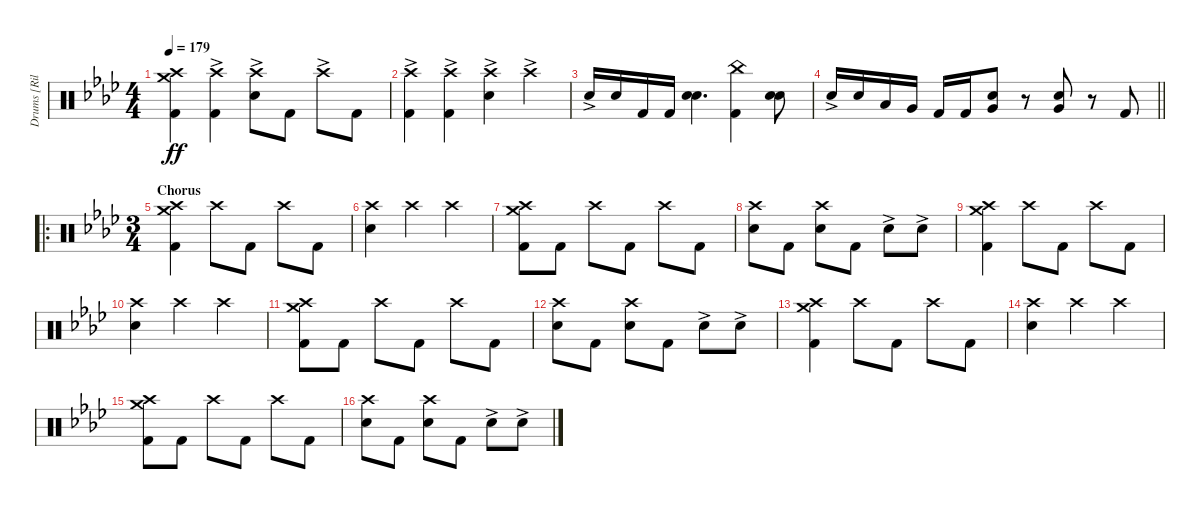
\track ("Drums [Riley]" "Drums [Ril") {instrument percussion}
\staff {score}
\articulation defaults
\ts (4 4)
\tempo 179
\clef neutral
\ks ab
("Crash medium (hit)" "Crash high (hit)" "Kick (hit) 2").4{dy ff} ("Crash high (hit)"{ac} "Kick (hit) 2").4 ("Crash high (hit)"{ac} "Electric Snare (hit)").8 "Kick (hit) 2".8 "Crash high (hit)"{ac}.8 "Kick (hit) 2".8 |
("Crash high (hit)"{ac} "Kick (hit) 2").4 ("Crash high (hit)"{ac} "Kick (hit) 2").4 ("Crash high (hit)"{ac} "Electric Snare (hit)").4 "Crash high (hit)"{ac}.4 |
"Electric Snare (hit)"{ac}.16 "Electric Snare (hit)".16 "Kick (hit) 2".16 "Kick (hit) 2".16 ("Electric Snare (hit)" "Electric Snare (hit)").4{d bu 60} ("China (hit)" "Kick (hit) 2").4 ("Electric Snare (hit)" "Electric Snare (hit)").8{bu 60} |
\barLineRight lightlight "Electric Snare (hit)"{ac}.16 "Electric Snare (hit)".16 "Low Tom (hit)".16 "Very Low Tom (hit)".16 "Kick (hit) 2".16 "Kick (hit) 2".16
("Very Low Tom (hit)" "Electric Snare (hit)").8{bu 60} r.8 ("Very Low Tom (hit)" "Electric Snare (hit)").8{bu 60} r.8 "Kick (hit) 2".8 |
\ro
\ts (3 4)
\section ("" "Chorus")
("Crash medium (hit)" "Crash high (hit)" "Kick (hit) 2").4 "Crash high (hit)".8 "Kick (hit) 2".8 "Crash high (hit)".8 "Kick (hit) 2".8 |
("Crash high (hit)" "Electric Snare (hit)").4 "Crash high (hit)".4 "Crash high (hit)".4 |
("Crash medium (hit)" "Crash high (hit)" "Kick (hit) 2").8 "Kick (hit) 2".8 "Crash high (hit)".8 "Kick (hit) 2".8 "Crash high (hit)".8 "Kick (hit) 2".8 |
("Crash high (hit)" "Electric Snare (hit)").8 "Kick (hit) 2".8 ("Crash high (hit)" "Electric Snare (hit)").8 "Kick (hit) 2".8 "Electric Snare (hit)"{ac}.8 "Electric Snare (hit)"{ac}.8 |
("Crash medium (hit)" "Crash high (hit)" "Kick (hit) 2").4 "Crash high (hit)".8 "Kick (hit) 2".8 "Crash high (hit)".8 "Kick (hit) 2".8 |
("Crash high (hit)" "Electric Snare (hit)").4 "Crash high (hit)".4 "Crash high (hit)".4 |
("Crash medium (hit)" "Crash high (hit)" "Kick (hit) 2").8 "Kick (hit) 2".8 "Crash high (hit)".8 "Kick (hit) 2".8 "Crash high (hit)".8 "Kick (hit) 2".8 |
("Crash high (hit)" "Electric Snare (hit)").8 "Kick (hit) 2".8 ("Crash high (hit)" "Electric Snare (hit)").8 "Kick (hit) 2".8 "Electric Snare (hit)"{ac}.8 "Electric Snare (hit)"{ac}.8 |
("Crash medium (hit)" "Crash high (hit)" "Kick (hit) 2").4 "Crash high (hit)".8 "Kick (hit) 2".8 "Crash high (hit)".8 "Kick (hit) 2".8 |
("Crash high (hit)" "Electric Snare (hit)").4 "Crash high (hit)".4 "Crash high (hit)".4 |
("Crash medium (hit)" "Crash high (hit)" "Kick (hit) 2").8 "Kick (hit) 2".8 "Crash high (hit)".8 "Kick (hit) 2".8 "Crash high (hit)".8 "Kick (hit) 2".8 |
("Crash high (hit)" "Electric Snare (hit)").8 "Kick (hit) 2".8 ("Crash high (hit)" "Electric Snare (hit)").8 "Kick (hit) 2".8 "Electric Snare (hit)"{ac}.8 "Electric Snare (hit)"{ac}.8
